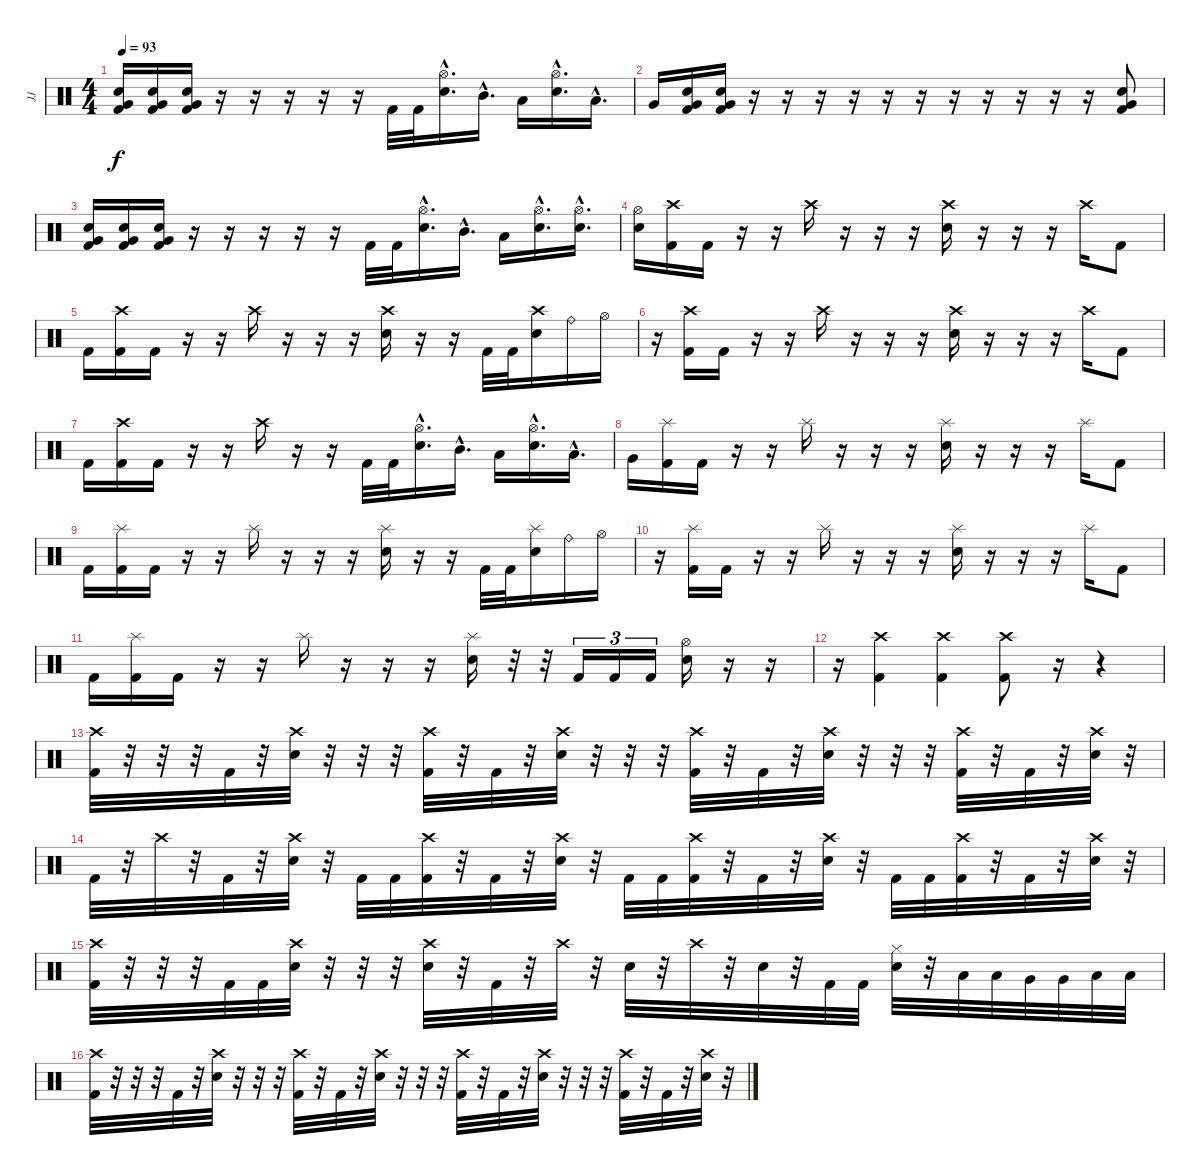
\track ("JJ" "JJ") {instrument percussion}
\staff {score}
\articulation defaults
\ts (4 4)
\tempo 93
\clef neutral
\ks c
("Very Low Tom (hit)" "Electric Snare (hit)" "Kick (hit) 2").16{dy f} ("Very Low Tom (hit)" "Electric Snare (hit)" "Kick (hit) 2").16 ("Very Low Tom (hit)" "Electric Snare (hit)" "Kick (hit) 2").16 r.16 r.16 r.16 r.16 r.16 "Kick (hit) 2".32 "Kick (hit) 2".32 ("Hi-Hat (open)"{hac} "Electric Snare (hit)"{hac}).16{d} "Mid Tom (hit)"{hac}.16{d} "Low Tom (hit)".16 ("Hi-Hat (open)"{hac} "Electric Snare (hit)"{hac}).16{d} "Low Tom (hit)"{hac}.16{d} |
"Very Low Tom (hit)".16 ("Very Low Tom (hit)" "Electric Snare (hit)" "Kick (hit) 2").16 ("Very Low Tom (hit)" "Electric Snare (hit)" "Kick (hit) 2").16 r.16 r.16 r.16 r.16 r.16 r.16 r.16 r.16 r.16 r.16 r.16 ("Very Low Tom (hit)" "Electric Snare (hit)" "Kick (hit) 2").8 |
("Very Low Tom (hit)" "Electric Snare (hit)" "Kick (hit) 2").16 ("Very Low Tom (hit)" "Electric Snare (hit)" "Kick (hit) 2").16 ("Very Low Tom (hit)" "Electric Snare (hit)" "Kick (hit) 2").16 r.16 r.16 r.16 r.16 r.16 "Kick (hit) 2".32 "Kick (hit) 2".32 ("Hi-Hat (open)"{hac} "Electric Snare (hit)"{hac}).16{d} "Mid Tom (hit)"{hac}.16{d} "Low Tom (hit)".16 ("Hi-Hat (open)"{hac} "Electric Snare (hit)"{hac}).16{d} ("Hi-Hat (open)"{hac} "Electric Snare (hit)"{hac}).16{d} |
("Hi-Hat (open)" "Electric Snare (hit)").16 ("Crash high (hit)" "Kick (hit) 2").16 "Kick (hit) 2".16 r.16 r.16 "Crash high (hit)".16 r.16 r.16 r.16 ("Crash high (hit)" "Electric Snare (hit)").16 r.16 r.16 r.16 "Crash high (hit)".16 "Kick (hit) 2".8 |
"Kick (hit) 2".16 ("Crash high (hit)" "Kick (hit) 2").16 "Kick (hit) 2".16 r.16 r.16 "Crash high (hit)".16 r.16 r.16 r.16 ("Crash high (hit)" "Electric Snare (hit)").16 r.16 r.16 "Kick (hit) 2".32 "Kick (hit) 2".32 ("Crash high (hit)" "Electric Snare (hit)").16 "Ride (bell)".16 "Hi-Hat (open)".16 |
r.16 ("Crash high (hit)" "Kick (hit) 2").16 "Kick (hit) 2".16 r.16 r.16 "Crash high (hit)".16 r.16 r.16 r.16 ("Crash high (hit)" "Electric Snare (hit)").16 r.16 r.16 r.16 "Crash high (hit)".16 "Kick (hit) 2".8 |
"Kick (hit) 2".16 ("Crash high (hit)" "Kick (hit) 2").16 "Kick (hit) 2".16 r.16 r.16 "Crash high (hit)".16 r.16 r.16 "Kick (hit) 2".32 "Kick (hit) 2".32 ("Hi-Hat (open)"{hac} "Electric Snare (hit)"{hac}).16{d} "Mid Tom (hit)"{hac}.16{d} "Low Tom (hit)".16 ("Hi-Hat (open)"{hac} "Electric Snare (hit)"{hac}).16{d} "Low Tom (hit)"{hac}.16{d} |
"Very Low Tom (hit)".16 ("Splash (hit)" "Kick (hit) 2").16 "Kick (hit) 2".16 r.16 r.16 "Splash (hit)".16 r.16 r.16 r.16 ("Splash (hit)" "Electric Snare (hit)").16 r.16 r.16 r.16 "Splash (hit)".16 "Kick (hit) 2".8 |
"Kick (hit) 2".16 ("Splash (hit)" "Kick (hit) 2").16 "Kick (hit) 2".16 r.16 r.16 "Splash (hit)".16 r.16 r.16 r.16 ("Splash (hit)" "Electric Snare (hit)").16 r.16 r.16 "Kick (hit) 2".32 "Kick (hit) 2".32 ("Splash (hit)" "Electric Snare (hit)").16 "Ride (bell)".16 "Hi-Hat (open)".16 |
r.16 ("Splash (hit)" "Kick (hit) 2").16 "Kick (hit) 2".16 r.16 r.16 "Splash (hit)".16 r.16 r.16 r.16 ("Splash (hit)" "Electric Snare (hit)").16 r.16 r.16 r.16 "Splash (hit)".16 "Kick (hit) 2".8 |
"Kick (hit) 2".16 ("Splash (hit)" "Kick (hit) 2").16 "Kick (hit) 2".16 r.16 r.16 "Splash (hit)".16 r.16 r.16 r.16 ("Splash (hit)" "Electric Snare (hit)").16 r.32 r.32 "Kick (hit) 2".16{tu (3 2)} "Kick (hit) 2".16{tu (3 2)} "Kick (hit) 2".16{tu (3 2)} ("Hi-Hat (open)" "Electric Snare (hit)").16 r.16 r.16 |
r.16 ("Crash high (hit)" "Kick (hit) 2").4 ("Crash high (hit)" "Kick (hit) 2").4 ("Crash high (hit)" "Kick (hit) 2").8 r.16{volume 0} r.4 |
("Crash high (hit)" "Kick (hit) 2").32{volume 16} r.32 r.32 r.32 "Kick (hit) 2".32 r.32 ("Crash high (hit)" "Electric Snare (hit)").32 r.32 r.32 r.32 ("Crash high (hit)" "Kick (hit) 2").32 r.32 "Kick (hit) 2".32 r.32 ("Crash high (hit)" "Electric Snare (hit)").32 r.32 r.32 r.32 ("Crash high (hit)" "Kick (hit) 2").32 r.32 "Kick (hit) 2".32 r.32 ("Crash high (hit)" "Electric Snare (hit)").32 r.32 r.32 r.32 ("Crash high (hit)" "Kick (hit) 2").32 r.32 "Kick (hit) 2".32 r.32 ("Crash high (hit)" "Electric Snare (hit)").32 r.32 |
"Kick (hit) 2".32{volume 16} r.32 "Crash high (hit)".32 r.32 "Kick (hit) 2".32 r.32 ("Crash high (hit)" "Electric Snare (hit)").32 r.32 "Kick (hit) 2".32 "Kick (hit) 2".32 ("Crash high (hit)" "Kick (hit) 2").32 r.32 "Kick (hit) 2".32 r.32 ("Crash high (hit)" "Electric Snare (hit)").32 r.32 "Kick (hit) 2".32 "Kick (hit) 2".32 ("Crash high (hit)" "Kick (hit) 2").32 r.32 "Kick (hit) 2".32 r.32 ("Crash high (hit)" "Electric Snare (hit)").32 r.32 "Kick (hit) 2".32 "Kick (hit) 2".32 ("Crash high (hit)" "Kick (hit) 2").32 r.32 "Kick (hit) 2".32 r.32 ("Crash high (hit)" "Electric Snare (hit)").32 r.32 |
("Crash high (hit)" "Kick (hit) 2").32 r.32 r.32 r.32 "Kick (hit) 2".32 "Kick (hit) 2".32 ("Crash high (hit)" "Electric Snare (hit)").32 r.32 r.32 r.32 ("Crash high (hit)" "Electric Snare (hit)").32 r.32 "Kick (hit) 2".32 r.32 "Crash high (hit)".32 r.32 "Electric Snare (hit)".32 r.32 "Crash high (hit)".32 r.32 "Electric Snare (hit)".32 r.32 "Kick (hit) 2".32 "Kick (hit) 2".32 ("Hi-Hat (closed)" "Electric Snare (hit)").32 r.32 "Low Tom (hit)".32 "Low Tom (hit)".32 "Very Low Tom (hit)".32 "Very Low Tom (hit)".32 "Low Floor Tom (hit)".32 "Low Floor Tom (hit)".32 |
("Crash high (hit)" "Kick (hit) 2").32 r.32 r.32 r.32 "Kick (hit) 2".32 r.32 ("Crash high (hit)" "Electric Snare (hit)").32 r.32 r.32 r.32 ("Crash high (hit)" "Kick (hit) 2").32 r.32 "Kick (hit) 2".32 r.32 ("Crash high (hit)" "Electric Snare (hit)").32 r.32 r.32 r.32 ("Crash high (hit)" "Kick (hit) 2").32 r.32 "Kick (hit) 2".32 r.32 ("Crash high (hit)" "Electric Snare (hit)").32 r.32 r.32 r.32 ("Crash high (hit)" "Kick (hit) 2").32 r.32 "Kick (hit) 2".32 r.32 ("Crash high (hit)" "Electric Snare (hit)").32 r.32
